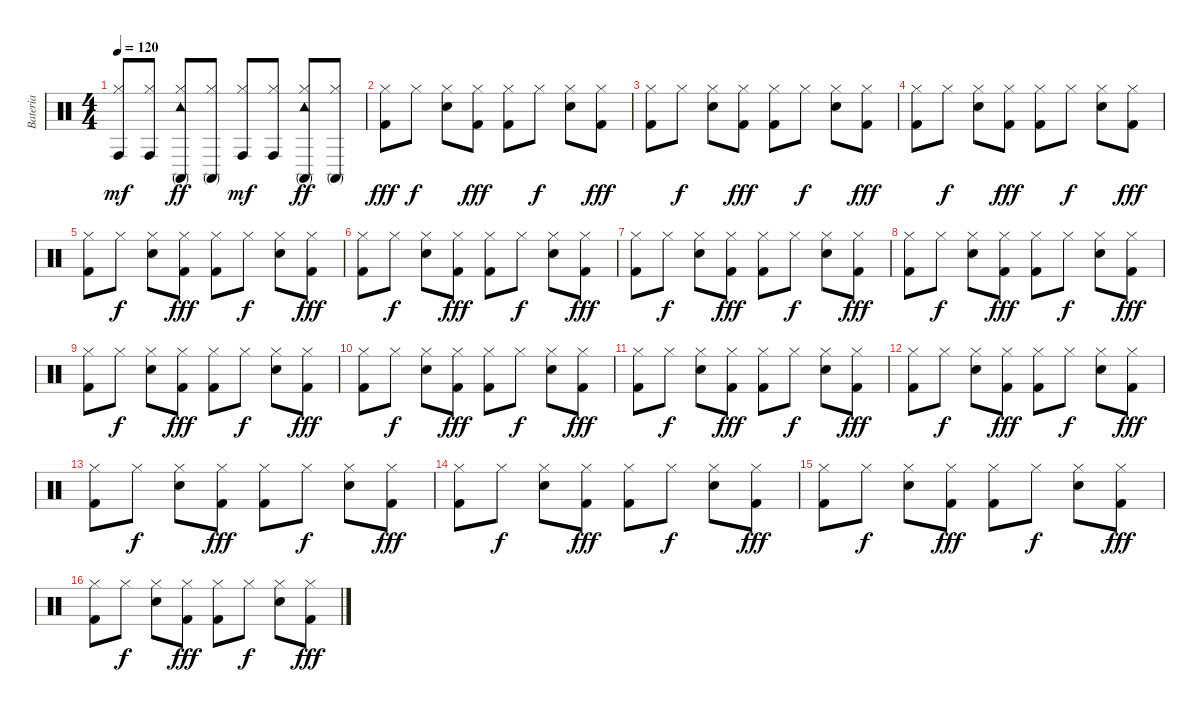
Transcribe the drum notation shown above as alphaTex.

\track ("Bateria" "Bateria") {instrument percussion}
\staff {score}
\articulation defaults
\ts (4 4)
\tempo 120
\clef neutral
\ks c
("Hi-Hat (closed)" "Conga high (hit)").8{dy mf} ("Hi-Hat (closed)" "Conga high (hit)").8 ("Hi-Hat (closed)" "Tambourine (hit)" "Conga high (mute)").8{dy ff} ("Hi-Hat (closed)" "Conga high (mute)").8 ("Hi-Hat (closed)" "Conga high (hit)").8{dy mf} ("Hi-Hat (closed)" "Conga high (hit)").8 ("Hi-Hat (closed)" "Tambourine (hit)" "Conga high (mute)").8{dy ff} ("Hi-Hat (closed)" "Conga high (mute)").8 |
("Hi-Hat (closed)" "Kick (hit) 2").8{dy fff} "Hi-Hat (closed)".8{dy f} ("Hi-Hat (closed)" "Snare (hit) 2").8 ("Hi-Hat (closed)" "Kick (hit) 2").8{dy fff} ("Hi-Hat (closed)" "Kick (hit) 2").8 "Hi-Hat (closed)".8{dy f} ("Hi-Hat (closed)" "Snare (hit) 2").8 ("Hi-Hat (closed)" "Kick (hit) 2").8{dy fff} |
("Hi-Hat (closed)" "Kick (hit) 2").8 "Hi-Hat (closed)".8{dy f} ("Hi-Hat (closed)" "Snare (hit) 2").8 ("Hi-Hat (closed)" "Kick (hit) 2").8{dy fff} ("Hi-Hat (closed)" "Kick (hit) 2").8 "Hi-Hat (closed)".8{dy f} ("Hi-Hat (closed)" "Snare (hit) 2").8 ("Hi-Hat (closed)" "Kick (hit) 2").8{dy fff} |
("Hi-Hat (closed)" "Kick (hit) 2").8 "Hi-Hat (closed)".8{dy f} ("Hi-Hat (closed)" "Snare (hit) 2").8 ("Hi-Hat (closed)" "Kick (hit) 2").8{dy fff} ("Hi-Hat (closed)" "Kick (hit) 2").8 "Hi-Hat (closed)".8{dy f} ("Hi-Hat (closed)" "Snare (hit) 2").8 ("Hi-Hat (closed)" "Kick (hit) 2").8{dy fff} |
("Hi-Hat (closed)" "Kick (hit) 2").8 "Hi-Hat (closed)".8{dy f} ("Hi-Hat (closed)" "Snare (hit) 2").8 ("Hi-Hat (closed)" "Kick (hit) 2").8{dy fff} ("Hi-Hat (closed)" "Kick (hit) 2").8 "Hi-Hat (closed)".8{dy f} ("Hi-Hat (closed)" "Snare (hit) 2").8 ("Hi-Hat (closed)" "Kick (hit) 2").8{dy fff} |
("Hi-Hat (closed)" "Kick (hit) 2").8 "Hi-Hat (closed)".8{dy f} ("Hi-Hat (closed)" "Snare (hit) 2").8 ("Hi-Hat (closed)" "Kick (hit) 2").8{dy fff} ("Hi-Hat (closed)" "Kick (hit) 2").8 "Hi-Hat (closed)".8{dy f} ("Hi-Hat (closed)" "Snare (hit) 2").8 ("Hi-Hat (closed)" "Kick (hit) 2").8{dy fff} |
("Hi-Hat (closed)" "Kick (hit) 2").8 "Hi-Hat (closed)".8{dy f} ("Hi-Hat (closed)" "Snare (hit) 2").8 ("Hi-Hat (closed)" "Kick (hit) 2").8{dy fff} ("Hi-Hat (closed)" "Kick (hit) 2").8 "Hi-Hat (closed)".8{dy f} ("Hi-Hat (closed)" "Snare (hit) 2").8 ("Hi-Hat (closed)" "Kick (hit) 2").8{dy fff} |
("Hi-Hat (closed)" "Kick (hit) 2").8 "Hi-Hat (closed)".8{dy f} ("Hi-Hat (closed)" "Snare (hit) 2").8 ("Hi-Hat (closed)" "Kick (hit) 2").8{dy fff} ("Hi-Hat (closed)" "Kick (hit) 2").8 "Hi-Hat (closed)".8{dy f} ("Hi-Hat (closed)" "Snare (hit) 2").8 ("Hi-Hat (closed)" "Kick (hit) 2").8{dy fff} |
("Hi-Hat (closed)" "Kick (hit) 2").8 "Hi-Hat (closed)".8{dy f} ("Hi-Hat (closed)" "Snare (hit) 2").8 ("Hi-Hat (closed)" "Kick (hit) 2").8{dy fff} ("Hi-Hat (closed)" "Kick (hit) 2").8 "Hi-Hat (closed)".8{dy f} ("Hi-Hat (closed)" "Snare (hit) 2").8 ("Hi-Hat (closed)" "Kick (hit) 2").8{dy fff} |
("Hi-Hat (closed)" "Kick (hit) 2").8 "Hi-Hat (closed)".8{dy f} ("Hi-Hat (closed)" "Snare (hit) 2").8 ("Hi-Hat (closed)" "Kick (hit) 2").8{dy fff} ("Hi-Hat (closed)" "Kick (hit) 2").8 "Hi-Hat (closed)".8{dy f} ("Hi-Hat (closed)" "Snare (hit) 2").8 ("Hi-Hat (closed)" "Kick (hit) 2").8{dy fff} |
("Hi-Hat (closed)" "Kick (hit) 2").8 "Hi-Hat (closed)".8{dy f} ("Hi-Hat (closed)" "Snare (hit) 2").8 ("Hi-Hat (closed)" "Kick (hit) 2").8{dy fff} ("Hi-Hat (closed)" "Kick (hit) 2").8 "Hi-Hat (closed)".8{dy f} ("Hi-Hat (closed)" "Snare (hit) 2").8 ("Hi-Hat (closed)" "Kick (hit) 2").8{dy fff} |
("Hi-Hat (closed)" "Kick (hit) 2").8 "Hi-Hat (closed)".8{dy f} ("Hi-Hat (closed)" "Snare (hit) 2").8 ("Hi-Hat (closed)" "Kick (hit) 2").8{dy fff} ("Hi-Hat (closed)" "Kick (hit) 2").8 "Hi-Hat (closed)".8{dy f} ("Hi-Hat (closed)" "Snare (hit) 2").8 ("Hi-Hat (closed)" "Kick (hit) 2").8{dy fff} |
("Hi-Hat (closed)" "Kick (hit) 2").8 "Hi-Hat (closed)".8{dy f} ("Hi-Hat (closed)" "Snare (hit) 2").8 ("Hi-Hat (closed)" "Kick (hit) 2").8{dy fff} ("Hi-Hat (closed)" "Kick (hit) 2").8 "Hi-Hat (closed)".8{dy f} ("Hi-Hat (closed)" "Snare (hit) 2").8 ("Hi-Hat (closed)" "Kick (hit) 2").8{dy fff} |
("Hi-Hat (closed)" "Kick (hit) 2").8 "Hi-Hat (closed)".8{dy f} ("Hi-Hat (closed)" "Snare (hit) 2").8 ("Hi-Hat (closed)" "Kick (hit) 2").8{dy fff} ("Hi-Hat (closed)" "Kick (hit) 2").8 "Hi-Hat (closed)".8{dy f} ("Hi-Hat (closed)" "Snare (hit) 2").8 ("Hi-Hat (closed)" "Kick (hit) 2").8{dy fff} |
("Hi-Hat (closed)" "Kick (hit) 2").8 "Hi-Hat (closed)".8{dy f} ("Hi-Hat (closed)" "Snare (hit) 2").8 ("Hi-Hat (closed)" "Kick (hit) 2").8{dy fff} ("Hi-Hat (closed)" "Kick (hit) 2").8 "Hi-Hat (closed)".8{dy f} ("Hi-Hat (closed)" "Snare (hit) 2").8 ("Hi-Hat (closed)" "Kick (hit) 2").8{dy fff} |
("Hi-Hat (closed)" "Kick (hit) 2").8 "Hi-Hat (closed)".8{dy f} ("Hi-Hat (closed)" "Snare (hit) 2").8 ("Hi-Hat (closed)" "Kick (hit) 2").8{dy fff} ("Hi-Hat (closed)" "Kick (hit) 2").8 "Hi-Hat (closed)".8{dy f} ("Hi-Hat (closed)" "Snare (hit) 2").8 ("Hi-Hat (closed)" "Kick (hit) 2").8{dy fff}
